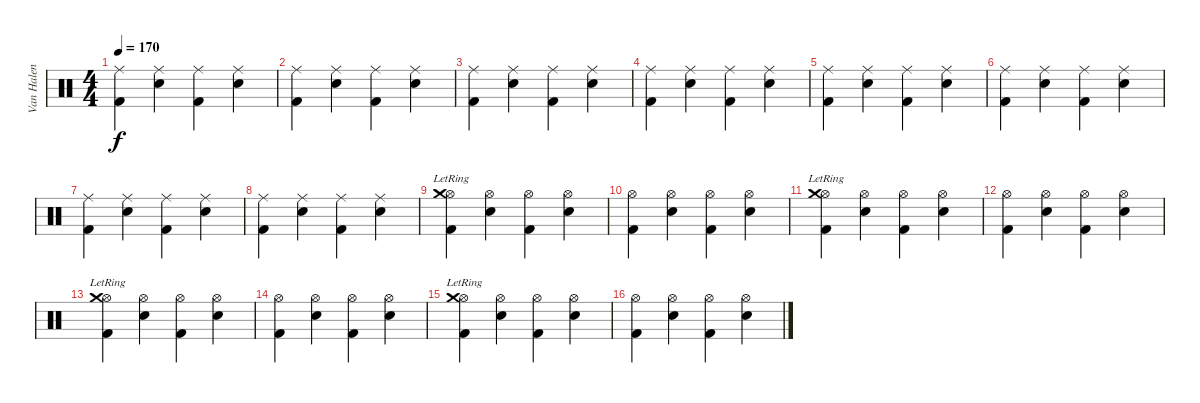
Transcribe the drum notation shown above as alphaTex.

\track ("Van Halen" "Van Halen") {instrument percussion}
\staff {score}
\articulation defaults
\ts (4 4)
\tempo 170
\clef neutral
\ks c
("Kick (hit) 2" "Ride (middle)").4{dy f} ("Snare (hit) 2" "Ride (middle)").4 ("Kick (hit) 2" "Ride (middle)").4 ("Snare (hit) 2" "Ride (middle)").4 |
("Kick (hit) 2" "Ride (middle)").4 ("Snare (hit) 2" "Ride (middle)").4 ("Kick (hit) 2" "Ride (middle)").4 ("Snare (hit) 2" "Ride (middle)").4 |
("Kick (hit) 2" "Ride (middle)").4 ("Snare (hit) 2" "Ride (middle)").4 ("Kick (hit) 2" "Ride (middle)").4 ("Snare (hit) 2" "Ride (middle)").4 |
("Kick (hit) 2" "Ride (middle)").4 ("Snare (hit) 2" "Ride (middle)").4 ("Kick (hit) 2" "Ride (middle)").4 ("Snare (hit) 2" "Ride (middle)").4 |
("Kick (hit) 2" "Ride (middle)").4 ("Snare (hit) 2" "Ride (middle)").4 ("Kick (hit) 2" "Ride (middle)").4 ("Snare (hit) 2" "Ride (middle)").4 |
("Kick (hit) 2" "Ride (middle)").4 ("Snare (hit) 2" "Ride (middle)").4 ("Kick (hit) 2" "Ride (middle)").4 ("Snare (hit) 2" "Ride (middle)").4 |
("Kick (hit) 2" "Ride (middle)").4 ("Snare (hit) 2" "Ride (middle)").4 ("Kick (hit) 2" "Ride (middle)").4 ("Snare (hit) 2" "Ride (middle)").4 |
("Kick (hit) 2" "Ride (middle)").4 ("Snare (hit) 2" "Ride (middle)").4 ("Kick (hit) 2" "Ride (middle)").4 ("Snare (hit) 2" "Ride (middle)").4 |
("Kick (hit) 2" "Hi-Hat (open)" "Crash medium (hit)"{lr}).4 ("Snare (hit) 2" "Hi-Hat (open)").4 ("Kick (hit) 2" "Hi-Hat (open)").4 ("Snare (hit) 2" "Hi-Hat (open)").4 |
("Kick (hit) 2" "Hi-Hat (open)").4 ("Snare (hit) 2" "Hi-Hat (open)").4 ("Kick (hit) 2" "Hi-Hat (open)").4 ("Snare (hit) 2" "Hi-Hat (open)").4 |
("Kick (hit) 2" "Hi-Hat (open)" "Crash medium (hit)"{lr}).4 ("Snare (hit) 2" "Hi-Hat (open)").4 ("Kick (hit) 2" "Hi-Hat (open)").4 ("Snare (hit) 2" "Hi-Hat (open)").4 |
("Kick (hit) 2" "Hi-Hat (open)").4 ("Snare (hit) 2" "Hi-Hat (open)").4 ("Kick (hit) 2" "Hi-Hat (open)").4 ("Snare (hit) 2" "Hi-Hat (open)").4 |
("Kick (hit) 2" "Hi-Hat (open)" "Crash medium (hit)"{lr}).4 ("Snare (hit) 2" "Hi-Hat (open)").4 ("Kick (hit) 2" "Hi-Hat (open)").4 ("Snare (hit) 2" "Hi-Hat (open)").4 |
("Kick (hit) 2" "Hi-Hat (open)").4 ("Snare (hit) 2" "Hi-Hat (open)").4 ("Kick (hit) 2" "Hi-Hat (open)").4 ("Snare (hit) 2" "Hi-Hat (open)").4 |
("Kick (hit) 2" "Hi-Hat (open)" "Crash medium (hit)"{lr}).4 ("Snare (hit) 2" "Hi-Hat (open)").4 ("Kick (hit) 2" "Hi-Hat (open)").4 ("Snare (hit) 2" "Hi-Hat (open)").4 |
("Kick (hit) 2" "Hi-Hat (open)").4 ("Snare (hit) 2" "Hi-Hat (open)").4 ("Kick (hit) 2" "Hi-Hat (open)").4 ("Snare (hit) 2" "Hi-Hat (open)").4
